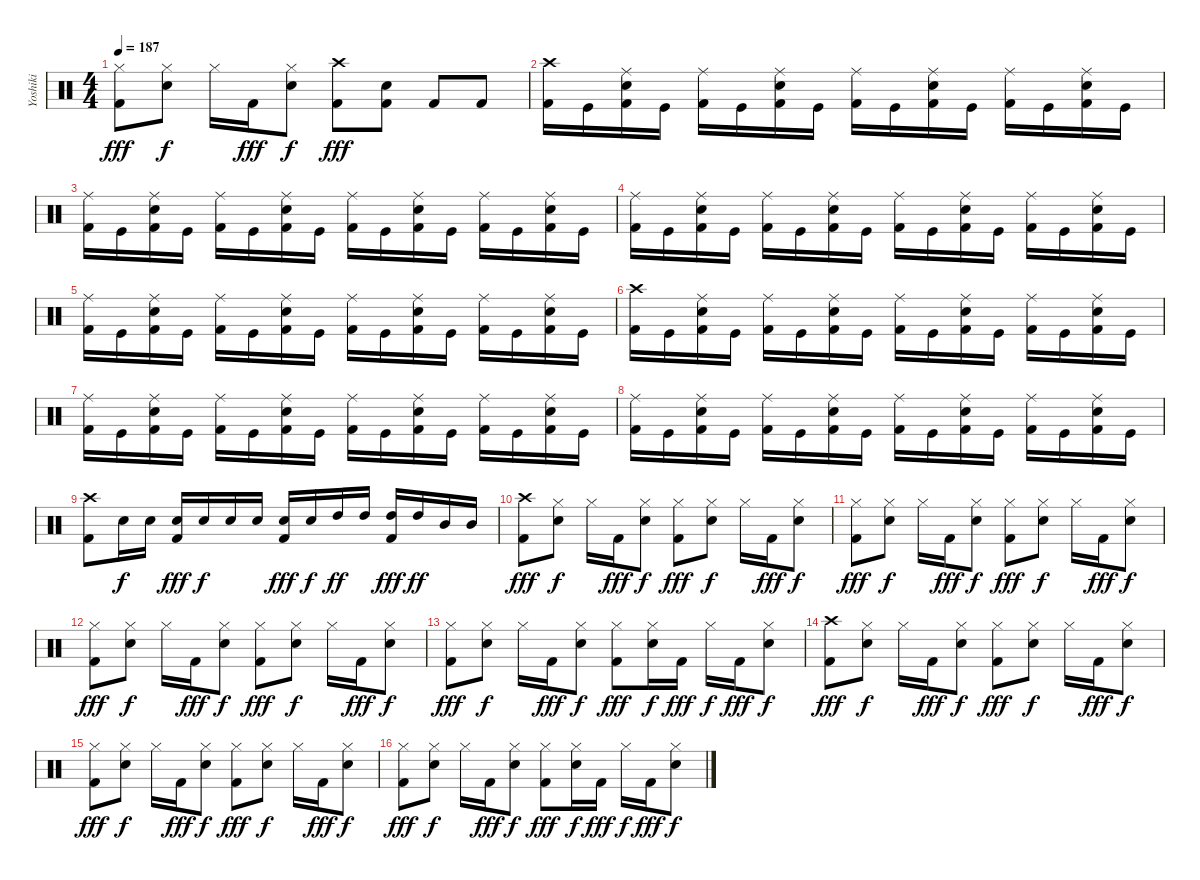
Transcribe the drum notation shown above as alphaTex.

\track ("Yoshiki" "Yoshiki") {instrument percussion}
\staff {score}
\articulation defaults
\ts (4 4)
\tempo 187
\clef neutral
\ks c
("Hi-Hat (closed)" "Kick (hit) 2").8{dy fff} ("Hi-Hat (closed)" "Electric Snare (hit)").8{dy f} "Hi-Hat (closed)".16 "Kick (hit) 2".16{dy fff} ("Hi-Hat (closed)" "Electric Snare (hit)").8{dy f} ("Crash high (hit)" "Kick (hit) 2").8{dy fff} ("Electric Snare (hit)" "Kick (hit) 2").8 "Kick (hit) 2".8 "Kick (hit) 2".8 |
("Crash high (hit)" "Kick (hit) 2").16 "Kick (hit)".16 ("Ride (middle)" "Electric Snare (hit)" "Kick (hit) 2").16 "Kick (hit)".16 ("Ride (middle)" "Kick (hit) 2").16 "Kick (hit)".16 ("Ride (middle)" "Electric Snare (hit)" "Kick (hit) 2").16 "Kick (hit)".16 ("Ride (middle)" "Kick (hit) 2").16 "Kick (hit)".16 ("Ride (middle)" "Electric Snare (hit)" "Kick (hit) 2").16 "Kick (hit)".16 ("Ride (middle)" "Kick (hit) 2").16 "Kick (hit)".16 ("Ride (middle)" "Electric Snare (hit)" "Kick (hit) 2").16 "Kick (hit)".16 |
("Ride (middle)" "Kick (hit) 2").16 "Kick (hit)".16 ("Ride (middle)" "Electric Snare (hit)" "Kick (hit) 2").16 "Kick (hit)".16 ("Ride (middle)" "Kick (hit) 2").16 "Kick (hit)".16 ("Ride (middle)" "Electric Snare (hit)" "Kick (hit) 2").16 "Kick (hit)".16 ("Ride (middle)" "Kick (hit) 2").16 "Kick (hit)".16 ("Ride (middle)" "Electric Snare (hit)" "Kick (hit) 2").16 "Kick (hit)".16 ("Ride (middle)" "Kick (hit) 2").16 "Kick (hit)".16 ("Ride (middle)" "Electric Snare (hit)" "Kick (hit) 2").16 "Kick (hit)".16 |
("Ride (middle)" "Kick (hit) 2").16 "Kick (hit)".16 ("Ride (middle)" "Electric Snare (hit)" "Kick (hit) 2").16 "Kick (hit)".16 ("Ride (middle)" "Kick (hit) 2").16 "Kick (hit)".16 ("Ride (middle)" "Electric Snare (hit)" "Kick (hit) 2").16 "Kick (hit)".16 ("Ride (middle)" "Kick (hit) 2").16 "Kick (hit)".16 ("Ride (middle)" "Electric Snare (hit)" "Kick (hit) 2").16 "Kick (hit)".16 ("Ride (middle)" "Kick (hit) 2").16 "Kick (hit)".16 ("Ride (middle)" "Electric Snare (hit)" "Kick (hit) 2").16 "Kick (hit)".16 |
("Ride (middle)" "Kick (hit) 2").16 "Kick (hit)".16 ("Ride (middle)" "Electric Snare (hit)" "Kick (hit) 2").16 "Kick (hit)".16 ("Ride (middle)" "Kick (hit) 2").16 "Kick (hit)".16 ("Ride (middle)" "Electric Snare (hit)" "Kick (hit) 2").16 "Kick (hit)".16 ("Ride (middle)" "Kick (hit) 2").16 "Kick (hit)".16 ("Ride (middle)" "Electric Snare (hit)" "Kick (hit) 2").16 "Kick (hit)".16 ("Ride (middle)" "Kick (hit) 2").16 "Kick (hit)".16 ("Ride (middle)" "Electric Snare (hit)" "Kick (hit) 2").16 "Kick (hit)".16 |
("Crash high (hit)" "Kick (hit) 2").16 "Kick (hit)".16 ("Ride (middle)" "Electric Snare (hit)" "Kick (hit) 2").16 "Kick (hit)".16 ("Ride (middle)" "Kick (hit) 2").16 "Kick (hit)".16 ("Ride (middle)" "Electric Snare (hit)" "Kick (hit) 2").16 "Kick (hit)".16 ("Ride (middle)" "Kick (hit) 2").16 "Kick (hit)".16 ("Ride (middle)" "Electric Snare (hit)" "Kick (hit) 2").16 "Kick (hit)".16 ("Ride (middle)" "Kick (hit) 2").16 "Kick (hit)".16 ("Ride (middle)" "Electric Snare (hit)" "Kick (hit) 2").16 "Kick (hit)".16 |
("Ride (middle)" "Kick (hit) 2").16 "Kick (hit)".16 ("Ride (middle)" "Electric Snare (hit)" "Kick (hit) 2").16 "Kick (hit)".16 ("Ride (middle)" "Kick (hit) 2").16 "Kick (hit)".16 ("Ride (middle)" "Electric Snare (hit)" "Kick (hit) 2").16 "Kick (hit)".16 ("Ride (middle)" "Kick (hit) 2").16 "Kick (hit)".16 ("Ride (middle)" "Electric Snare (hit)" "Kick (hit) 2").16 "Kick (hit)".16 ("Ride (middle)" "Kick (hit) 2").16 "Kick (hit)".16 ("Ride (middle)" "Electric Snare (hit)" "Kick (hit) 2").16 "Kick (hit)".16 |
("Ride (middle)" "Kick (hit) 2").16 "Kick (hit)".16 ("Ride (middle)" "Electric Snare (hit)" "Kick (hit) 2").16 "Kick (hit)".16 ("Ride (middle)" "Kick (hit) 2").16 "Kick (hit)".16 ("Ride (middle)" "Electric Snare (hit)" "Kick (hit) 2").16 "Kick (hit)".16 ("Ride (middle)" "Kick (hit) 2").16 "Kick (hit)".16 ("Ride (middle)" "Electric Snare (hit)" "Kick (hit) 2").16 "Kick (hit)".16 ("Ride (middle)" "Kick (hit) 2").16 "Kick (hit)".16 ("Ride (middle)" "Electric Snare (hit)" "Kick (hit) 2").16 "Kick (hit)".16 |
("Crash high (hit)" "Kick (hit) 2").8 "Electric Snare (hit)".16{dy f} "Electric Snare (hit)".16 ("Electric Snare (hit)" "Kick (hit) 2").16{dy fff} "Electric Snare (hit)".16{dy f} "Electric Snare (hit)".16 "Electric Snare (hit)".16 ("Electric Snare (hit)" "Kick (hit) 2").16{dy fff} "Electric Snare (hit)".16{dy f} "High Tom (hit)".16{dy ff} "High Tom (hit)".16 ("High Tom (hit)" "Kick (hit) 2").16{dy fff} "High Tom (hit)".16{dy ff} "Mid Tom (hit)".16 "Mid Tom (hit)".16 |
("Crash high (hit)" "Kick (hit) 2").8{dy fff} ("Hi-Hat (closed)" "Electric Snare (hit)").8{dy f} "Hi-Hat (closed)".16 "Kick (hit) 2".16{dy fff} ("Hi-Hat (closed)" "Electric Snare (hit)").8{dy f} ("Hi-Hat (closed)" "Kick (hit) 2").8{dy fff} ("Hi-Hat (closed)" "Electric Snare (hit)").8{dy f} "Hi-Hat (closed)".16 "Kick (hit) 2".16{dy fff} ("Hi-Hat (closed)" "Electric Snare (hit)").8{dy f} |
("Hi-Hat (closed)" "Kick (hit) 2").8{dy fff} ("Hi-Hat (closed)" "Electric Snare (hit)").8{dy f} "Hi-Hat (closed)".16 "Kick (hit) 2".16{dy fff} ("Hi-Hat (closed)" "Electric Snare (hit)").8{dy f} ("Hi-Hat (closed)" "Kick (hit) 2").8{dy fff} ("Hi-Hat (closed)" "Electric Snare (hit)").8{dy f} "Hi-Hat (closed)".16 "Kick (hit) 2".16{dy fff} ("Hi-Hat (closed)" "Electric Snare (hit)").8{dy f} |
("Hi-Hat (closed)" "Kick (hit) 2").8{dy fff} ("Hi-Hat (closed)" "Electric Snare (hit)").8{dy f} "Hi-Hat (closed)".16 "Kick (hit) 2".16{dy fff} ("Hi-Hat (closed)" "Electric Snare (hit)").8{dy f} ("Hi-Hat (closed)" "Kick (hit) 2").8{dy fff} ("Hi-Hat (closed)" "Electric Snare (hit)").8{dy f} "Hi-Hat (closed)".16 "Kick (hit) 2".16{dy fff} ("Hi-Hat (closed)" "Electric Snare (hit)").8{dy f} |
("Hi-Hat (closed)" "Kick (hit) 2").8{dy fff} ("Hi-Hat (closed)" "Electric Snare (hit)").8{dy f} "Hi-Hat (closed)".16 "Kick (hit) 2".16{dy fff} ("Hi-Hat (closed)" "Electric Snare (hit)").8{dy f} ("Hi-Hat (closed)" "Kick (hit) 2").8{dy fff} ("Hi-Hat (closed)" "Electric Snare (hit)").16{dy f} "Kick (hit) 2".16{dy fff} "Hi-Hat (closed)".16{dy f} "Kick (hit) 2".16{dy fff} ("Hi-Hat (closed)" "Electric Snare (hit)").8{dy f} |
("Crash high (hit)" "Kick (hit) 2").8{dy fff} ("Hi-Hat (closed)" "Electric Snare (hit)").8{dy f} "Hi-Hat (closed)".16 "Kick (hit) 2".16{dy fff} ("Hi-Hat (closed)" "Electric Snare (hit)").8{dy f} ("Hi-Hat (closed)" "Kick (hit) 2").8{dy fff} ("Hi-Hat (closed)" "Electric Snare (hit)").8{dy f} "Hi-Hat (closed)".16 "Kick (hit) 2".16{dy fff} ("Hi-Hat (closed)" "Electric Snare (hit)").8{dy f} |
("Hi-Hat (closed)" "Kick (hit) 2").8{dy fff} ("Hi-Hat (closed)" "Electric Snare (hit)").8{dy f} "Hi-Hat (closed)".16 "Kick (hit) 2".16{dy fff} ("Hi-Hat (closed)" "Electric Snare (hit)").8{dy f} ("Hi-Hat (closed)" "Kick (hit) 2").8{dy fff} ("Hi-Hat (closed)" "Electric Snare (hit)").8{dy f} "Hi-Hat (closed)".16 "Kick (hit) 2".16{dy fff} ("Hi-Hat (closed)" "Electric Snare (hit)").8{dy f} |
("Hi-Hat (closed)" "Kick (hit) 2").8{dy fff} ("Hi-Hat (closed)" "Electric Snare (hit)").8{dy f} "Hi-Hat (closed)".16 "Kick (hit) 2".16{dy fff} ("Hi-Hat (closed)" "Electric Snare (hit)").8{dy f} ("Hi-Hat (closed)" "Kick (hit) 2").8{dy fff} ("Hi-Hat (closed)" "Electric Snare (hit)").16{dy f} "Kick (hit) 2".16{dy fff} "Hi-Hat (closed)".16{dy f} "Kick (hit) 2".16{dy fff} ("Hi-Hat (closed)" "Electric Snare (hit)").8{dy f}
